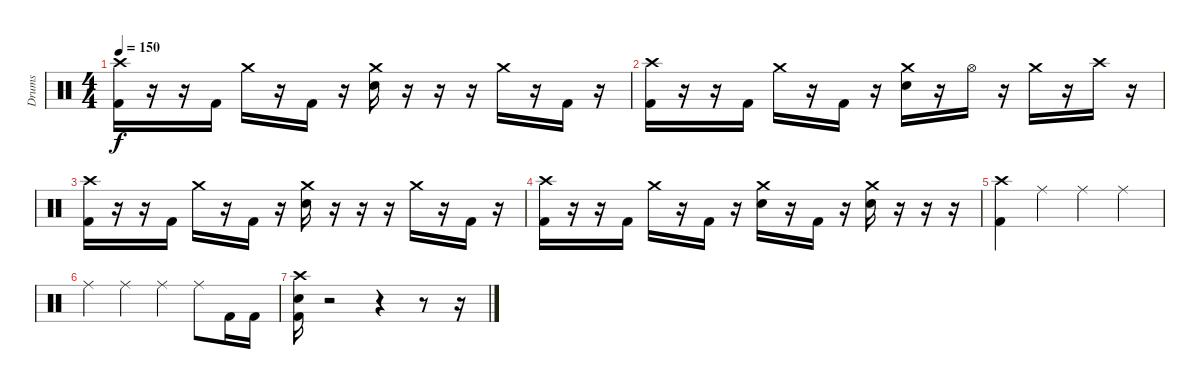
\track ("Drums" "Drums") {instrument percussion}
\staff {score}
\articulation defaults
\ts (4 4)
\tempo 150
\clef neutral
\ks c
("Crash high (hit)" "Kick (hit) 2").16{dy f} r.16 r.16 "Kick (hit) 2".16 "Crash medium (hit)".16 r.16 "Kick (hit) 2".16 r.16 ("Crash medium (hit)" "Electric Snare (hit)").16 r.16 r.16 r.16 "Crash medium (hit)".16 r.16 "Kick (hit) 2".16 r.16 |
("Crash high (hit)" "Kick (hit) 2").16 r.16 r.16 "Kick (hit) 2".16 "Crash medium (hit)".16 r.16 "Kick (hit) 2".16 r.16 ("Crash medium (hit)" "Electric Snare (hit)").16 r.16 "Hi-Hat (open)".16 r.16 "Crash medium (hit)".16 r.16 "Crash high (hit)".16 r.16 |
("Crash high (hit)" "Kick (hit) 2").16 r.16 r.16 "Kick (hit) 2".16 "Crash medium (hit)".16 r.16 "Kick (hit) 2".16 r.16 ("Crash medium (hit)" "Electric Snare (hit)").16 r.16 r.16 r.16 "Crash medium (hit)".16 r.16 "Kick (hit) 2".16 r.16 |
("Crash high (hit)" "Kick (hit) 2").16 r.16 r.16 "Kick (hit) 2".16 "Crash medium (hit)".16 r.16 "Kick (hit) 2".16 r.16 ("Crash medium (hit)" "Electric Snare (hit)").16 r.16 "Kick (hit) 2".16 r.16 ("Crash medium (hit)" "Electric Snare (hit)").16 r.16 r.16 r.16 |
("Crash high (hit)" "Kick (hit) 2").4 "Ride (middle)".4 "Ride (middle)".4 "Ride (middle)".4 |
"Ride (middle)".4 "Ride (middle)".4 "Ride (middle)".4 "Ride (middle)".8 "Kick (hit) 2".16 "Kick (hit) 2".16 |
("Crash high (hit)" "Electric Snare (hit)" "Kick (hit) 2").16 r.2 r.4 r.8 r.16
